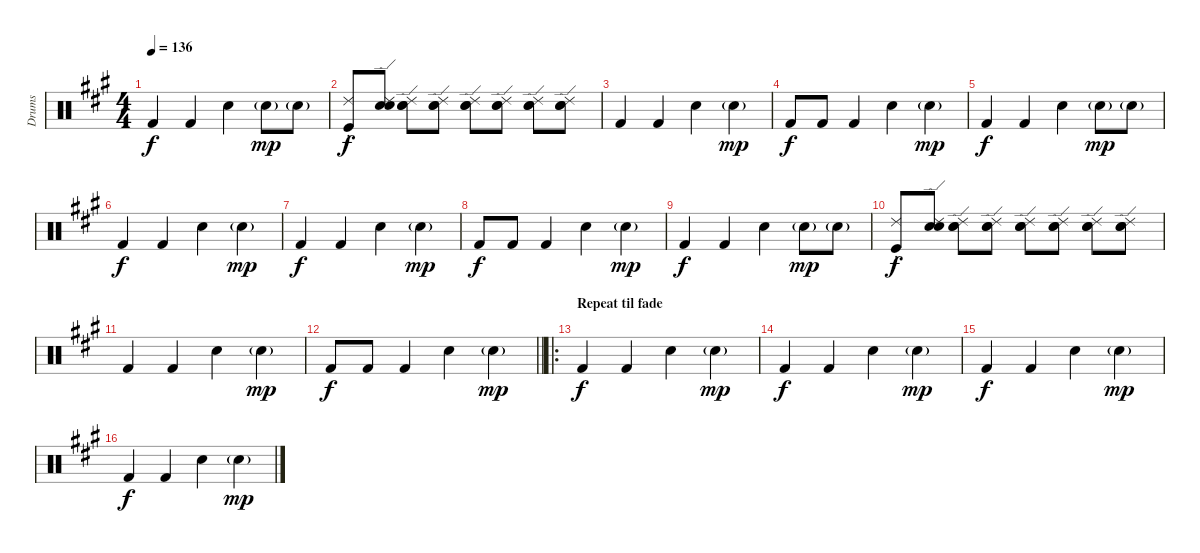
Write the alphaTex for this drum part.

\track ("Drums" "Drums") {instrument percussion}
\staff {score}
\articulation defaults
\ts (4 4)
\tempo 136
\clef neutral
\ks a "Kick (hit) 2".4{dy f} "Kick (hit) 2".4 "Snare (hit) 2".4 "Snare (hit) 2"{g}.8{dy mp} "Snare (hit) 2"{g}.8
|
("Ride (choke) 2" "Kick (hit)").8{dy f} ("Ride (edge) 2" "Snare (hit) 2" "Electric Snare (hit)").8 ("Ride (edge) 2" "Snare (hit) 2" "Electric Snare (hit)").8 ("Ride (edge) 2" "Snare (hit) 2" "Electric Snare (hit)").8 ("Ride (edge) 2" "Snare (hit) 2" "Electric Snare (hit)").8 ("Ride (edge) 2" "Snare (hit) 2" "Electric Snare (hit)").8 ("Ride (edge) 2" "Snare (hit) 2" "Electric Snare (hit)").8 ("Ride (edge) 2" "Snare (hit) 2" "Electric Snare (hit)").8 |
"Kick (hit) 2".4 "Kick (hit) 2".4 "Snare (hit) 2".4 "Snare (hit) 2"{g}.4{dy mp} |
"Kick (hit) 2".8{dy f} "Kick (hit) 2".8 "Kick (hit) 2".4 "Snare (hit) 2".4 "Snare (hit) 2"{g}.4{dy mp} |
"Kick (hit) 2".4{dy f} "Kick (hit) 2".4 "Snare (hit) 2".4 "Snare (hit) 2"{g}.8{dy mp} "Snare (hit) 2"{g}.8 |
"Kick (hit) 2".4{dy f} "Kick (hit) 2".4 "Snare (hit) 2".4 "Snare (hit) 2"{g}.4{dy mp} |
"Kick (hit) 2".4{dy f} "Kick (hit) 2".4 "Snare (hit) 2".4 "Snare (hit) 2"{g}.4{dy mp} |
"Kick (hit) 2".8{dy f} "Kick (hit) 2".8 "Kick (hit) 2".4 "Snare (hit) 2".4 "Snare (hit) 2"{g}.4{dy mp} |
"Kick (hit) 2".4{dy f} "Kick (hit) 2".4 "Snare (hit) 2".4 "Snare (hit) 2"{g}.8{dy mp} "Snare (hit) 2"{g}.8 |
("Ride (choke) 2" "Kick (hit)").8{dy f} ("Ride (edge) 2" "Snare (hit) 2" "Electric Snare (hit)").8 ("Ride (edge) 2" "Snare (hit) 2" "Electric Snare (hit)").8 ("Ride (edge) 2" "Snare (hit) 2" "Electric Snare (hit)").8 ("Ride (edge) 2" "Snare (hit) 2" "Electric Snare (hit)").8 ("Ride (edge) 2" "Snare (hit) 2" "Electric Snare (hit)").8 ("Ride (edge) 2" "Snare (hit) 2" "Electric Snare (hit)").8 ("Ride (edge) 2" "Snare (hit) 2" "Electric Snare (hit)").8 |
"Kick (hit) 2".4 "Kick (hit) 2".4 "Snare (hit) 2".4 "Snare (hit) 2"{g}.4{dy mp} |
\barLineRight lightlight "Kick (hit) 2".8{dy f} "Kick (hit) 2".8 "Kick (hit) 2".4 "Snare (hit) 2".4 "Snare (hit) 2"{g}.4{dy mp}
|
\ro
\section ("" "Repeat til fade")
"Kick (hit) 2".4{dy f} "Kick (hit) 2".4 "Snare (hit) 2".4 "Snare (hit) 2"{g}.4{dy mp} |
"Kick (hit) 2".4{dy f} "Kick (hit) 2".4 "Snare (hit) 2".4 "Snare (hit) 2"{g}.4{dy mp} |
"Kick (hit) 2".4{dy f} "Kick (hit) 2".4 "Snare (hit) 2".4 "Snare (hit) 2"{g}.4{dy mp} |
"Kick (hit) 2".4{dy f} "Kick (hit) 2".4 "Snare (hit) 2".4 "Snare (hit) 2"{g}.4{dy mp}
